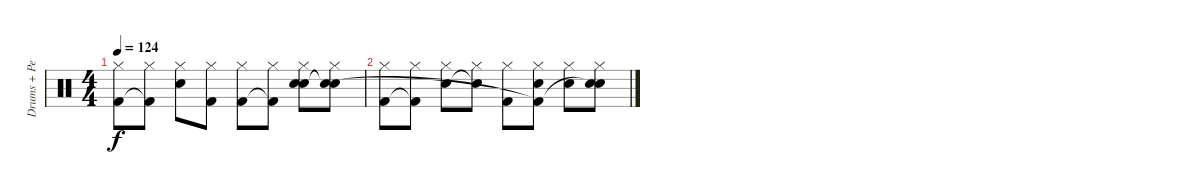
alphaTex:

\track ("Drums + Percussions (Bill Berry)" "Drums + Pe") {instrument percussion}
\staff {score}
\articulation defaults
\ts (4 4)
\tempo 124
\clef neutral
\ks c
("Hi-Hat (closed)" "Kick (hit) 2").8{dy f volume 4} ("Hi-Hat (closed)" "Kick (hit) 2"{t}).8 ("Hi-Hat (closed)" "Snare (hit) 2").8 ("Hi-Hat (closed)" "Kick (hit) 2").8 ("Hi-Hat (closed)" "Kick (hit) 2").8{volume 3} ("Hi-Hat (closed)" "Kick (hit) 2"{t}).8 ("Hi-Hat (closed)" "Hand Clap (hit)" "Snare (hit) 2").8 ("Hi-Hat (closed)" "Hand Clap (hit)"{t} "Snare (hit) 2"{t}).8 |
("Hi-Hat (closed)" "Kick (hit) 2").8{volume 2} ("Hi-Hat (closed)" "Kick (hit) 2"{t}).8 ("Hi-Hat (closed)" "Snare (hit) 2").8 ("Hi-Hat (closed)" "Snare (hit) 2"{t}).8 ("Hi-Hat (closed)" "Kick (hit) 2").8{volume 1} ("Hi-Hat (closed)" "Hand Clap (hit)" "Kick (hit) 2"{t}).8 ("Hi-Hat (closed)" "Snare (hit) 2").8 ("Hi-Hat (closed)" "Hand Clap (hit)" "Snare (hit)"{t}).8
